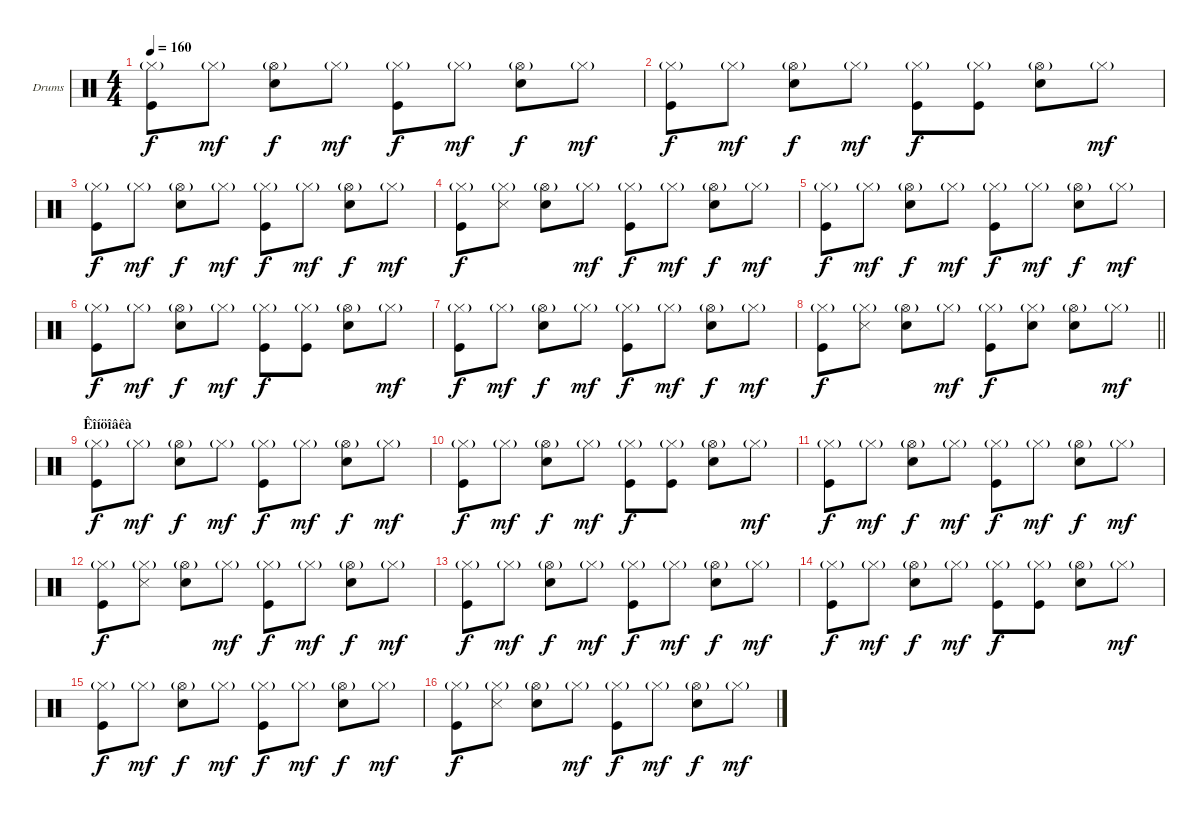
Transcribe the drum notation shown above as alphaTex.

\bracketExtendMode groupsimilarinstruments
\firstSystemTrackNameOrientation horizontal
\otherSystemsTrackNameOrientation horizontal
\track ("Гурьянов" "Drums") {instrument percussion}
\staff {score}
\articulation defaults
\ts (4 4)
\tempo 160
\clef neutral
\scale
0.333333
\ks c
("Hi-Hat (closed)"{g} "Kick (hit)").8{dy f} "Hi-Hat (closed)"{g}.8{dy mf} ("Hi-Hat (open)"{g} "Snare (hit) 2").8{dy f} "Hi-Hat (closed)"{g}.8{dy mf} ("Hi-Hat (closed)"{g} "Kick (hit)").8{dy f} "Hi-Hat (closed)"{g}.8{dy mf} ("Hi-Hat (open)"{g} "Snare (hit) 2").8{dy f} "Hi-Hat (closed)"{g}.8{dy mf} |
\scale
0.333333 ("Hi-Hat (closed)"{g} "Kick (hit)").8{dy f} "Hi-Hat (closed)"{g}.8{dy mf} ("Hi-Hat (open)"{g} "Snare (hit) 2").8{dy f} "Hi-Hat (closed)"{g}.8{dy mf} ("Hi-Hat (closed)"{g} "Kick (hit)").8{dy f} ("Hi-Hat (closed)"{g} "Kick (hit)").8 ("Hi-Hat (open)"{g} "Snare (hit) 2").8 "Hi-Hat (closed)"{g}.8{dy mf} |
\scale
0.333333 ("Hi-Hat (closed)"{g} "Kick (hit)").8{dy f} "Hi-Hat (closed)"{g}.8{dy mf} ("Hi-Hat (open)"{g} "Snare (hit) 2").8{dy f} "Hi-Hat (closed)"{g}.8{dy mf} ("Hi-Hat (closed)"{g} "Kick (hit)").8{dy f} "Hi-Hat (closed)"{g}.8{dy mf} ("Hi-Hat (open)"{g} "Snare (hit) 2").8{dy f} "Hi-Hat (closed)"{g}.8{dy mf} |
\scale
0.333333 ("Hi-Hat (closed)"{g} "Kick (hit)").8{dy f} ("Hi-Hat (closed)"{g} "Snare (side stick) 3").8 ("Hi-Hat (open)"{g} "Snare (hit) 2").8 "Hi-Hat (closed)"{g}.8{dy mf} ("Hi-Hat (closed)"{g} "Kick (hit)").8{dy f} "Hi-Hat (closed)"{g}.8{dy mf} ("Hi-Hat (open)"{g} "Snare (hit) 2").8{dy f} "Hi-Hat (closed)"{g}.8{dy mf} |
\scale
0.333333 ("Hi-Hat (closed)"{g} "Kick (hit)").8{dy f} "Hi-Hat (closed)"{g}.8{dy mf} ("Hi-Hat (open)"{g} "Snare (hit) 2").8{dy f} "Hi-Hat (closed)"{g}.8{dy mf} ("Hi-Hat (closed)"{g} "Kick (hit)").8{dy f} "Hi-Hat (closed)"{g}.8{dy mf} ("Hi-Hat (open)"{g} "Snare (hit) 2").8{dy f} "Hi-Hat (closed)"{g}.8{dy mf} |
\scale
0.333333 ("Hi-Hat (closed)"{g} "Kick (hit)").8{dy f} "Hi-Hat (closed)"{g}.8{dy mf} ("Hi-Hat (open)"{g} "Snare (hit) 2").8{dy f} "Hi-Hat (closed)"{g}.8{dy mf} ("Hi-Hat (closed)"{g} "Kick (hit)").8{dy f} ("Hi-Hat (closed)"{g} "Kick (hit)").8 ("Hi-Hat (open)"{g} "Snare (hit) 2").8 "Hi-Hat (closed)"{g}.8{dy mf} |
\scale
0.333333 ("Hi-Hat (closed)"{g} "Kick (hit)").8{dy f} "Hi-Hat (closed)"{g}.8{dy mf} ("Hi-Hat (open)"{g} "Snare (hit) 2").8{dy f} "Hi-Hat (closed)"{g}.8{dy mf} ("Hi-Hat (closed)"{g} "Kick (hit)").8{dy f} "Hi-Hat (closed)"{g}.8{dy mf} ("Hi-Hat (open)"{g} "Snare (hit) 2").8{dy f} "Hi-Hat (closed)"{g}.8{dy mf} |
\scale
0.333333
\barLineRight lightlight
("Hi-Hat (closed)"{g} "Kick (hit)").8{dy f} ("Hi-Hat (closed)"{g} "Snare (side stick) 3").8 ("Hi-Hat (open)"{g} "Snare (hit) 2").8 "Hi-Hat (closed)"{g}.8{dy mf} ("Hi-Hat (closed)"{g} "Kick (hit)").8{dy f} ("Hi-Hat (closed)"{g} "Snare (hit) 2").8 ("Hi-Hat (open)"{g} "Snare (hit) 2").8 "Hi-Hat (closed)"{g}.8{dy mf} |
\section ("" "Êîíöîâêà")
\scale
0.333333 ("Hi-Hat (closed)"{g} "Kick (hit)").8{dy f} "Hi-Hat (closed)"{g}.8{dy mf} ("Hi-Hat (open)"{g} "Snare (hit) 2").8{dy f} "Hi-Hat (closed)"{g}.8{dy mf} ("Hi-Hat (closed)"{g} "Kick (hit)").8{dy f} "Hi-Hat (closed)"{g}.8{dy mf} ("Hi-Hat (open)"{g} "Snare (hit) 2").8{dy f} "Hi-Hat (closed)"{g}.8{dy mf} |
\scale
0.333333 ("Hi-Hat (closed)"{g} "Kick (hit)").8{dy f} "Hi-Hat (closed)"{g}.8{dy mf} ("Hi-Hat (open)"{g} "Snare (hit) 2").8{dy f} "Hi-Hat (closed)"{g}.8{dy mf} ("Hi-Hat (closed)"{g} "Kick (hit)").8{dy f} ("Hi-Hat (closed)"{g} "Kick (hit)").8 ("Hi-Hat (open)"{g} "Snare (hit) 2").8 "Hi-Hat (closed)"{g}.8{dy mf} |
\scale
0.333333 ("Hi-Hat (closed)"{g} "Kick (hit)").8{dy f} "Hi-Hat (closed)"{g}.8{dy mf} ("Hi-Hat (open)"{g} "Snare (hit) 2").8{dy f} "Hi-Hat (closed)"{g}.8{dy mf} ("Hi-Hat (closed)"{g} "Kick (hit)").8{dy f} "Hi-Hat (closed)"{g}.8{dy mf} ("Hi-Hat (open)"{g} "Snare (hit) 2").8{dy f} "Hi-Hat (closed)"{g}.8{dy mf} |
\scale
0.333333 ("Hi-Hat (closed)"{g} "Kick (hit)").8{dy f} ("Hi-Hat (closed)"{g} "Snare (side stick) 3").8 ("Hi-Hat (open)"{g} "Snare (hit) 2").8 "Hi-Hat (closed)"{g}.8{dy mf} ("Hi-Hat (closed)"{g} "Kick (hit)").8{dy f} "Hi-Hat (closed)"{g}.8{dy mf} ("Hi-Hat (open)"{g} "Snare (hit) 2").8{dy f} "Hi-Hat (closed)"{g}.8{dy mf} |
\scale
0.333333 ("Hi-Hat (closed)"{g} "Kick (hit)").8{dy f} "Hi-Hat (closed)"{g}.8{dy mf} ("Hi-Hat (open)"{g} "Snare (hit) 2").8{dy f} "Hi-Hat (closed)"{g}.8{dy mf} ("Hi-Hat (closed)"{g} "Kick (hit)").8{dy f} "Hi-Hat (closed)"{g}.8{dy mf} ("Hi-Hat (open)"{g} "Snare (hit) 2").8{dy f} "Hi-Hat (closed)"{g}.8{dy mf} |
\scale
0.333333 ("Hi-Hat (closed)"{g} "Kick (hit)").8{dy f} "Hi-Hat (closed)"{g}.8{dy mf} ("Hi-Hat (open)"{g} "Snare (hit) 2").8{dy f} "Hi-Hat (closed)"{g}.8{dy mf} ("Hi-Hat (closed)"{g} "Kick (hit)").8{dy f} ("Hi-Hat (closed)"{g} "Kick (hit)").8 ("Hi-Hat (open)"{g} "Snare (hit) 2").8 "Hi-Hat (closed)"{g}.8{dy mf} |
\scale
0.333333 ("Hi-Hat (closed)"{g} "Kick (hit)").8{dy f} "Hi-Hat (closed)"{g}.8{dy mf} ("Hi-Hat (open)"{g} "Snare (hit) 2").8{dy f} "Hi-Hat (closed)"{g}.8{dy mf} ("Hi-Hat (closed)"{g} "Kick (hit)").8{dy f} "Hi-Hat (closed)"{g}.8{dy mf} ("Hi-Hat (open)"{g} "Snare (hit) 2").8{dy f} "Hi-Hat (closed)"{g}.8{dy mf} |
\scale
0.333333 ("Hi-Hat (closed)"{g} "Kick (hit)").8{dy f} ("Hi-Hat (closed)"{g} "Snare (side stick) 3").8 ("Hi-Hat (open)"{g} "Snare (hit) 2").8 "Hi-Hat (closed)"{g}.8{dy mf} ("Hi-Hat (closed)"{g} "Kick (hit)").8{dy f} "Hi-Hat (closed)"{g}.8{dy mf} ("Hi-Hat (open)"{g} "Snare (hit) 2").8{dy f} "Hi-Hat (closed)"{g}.8{dy mf}
